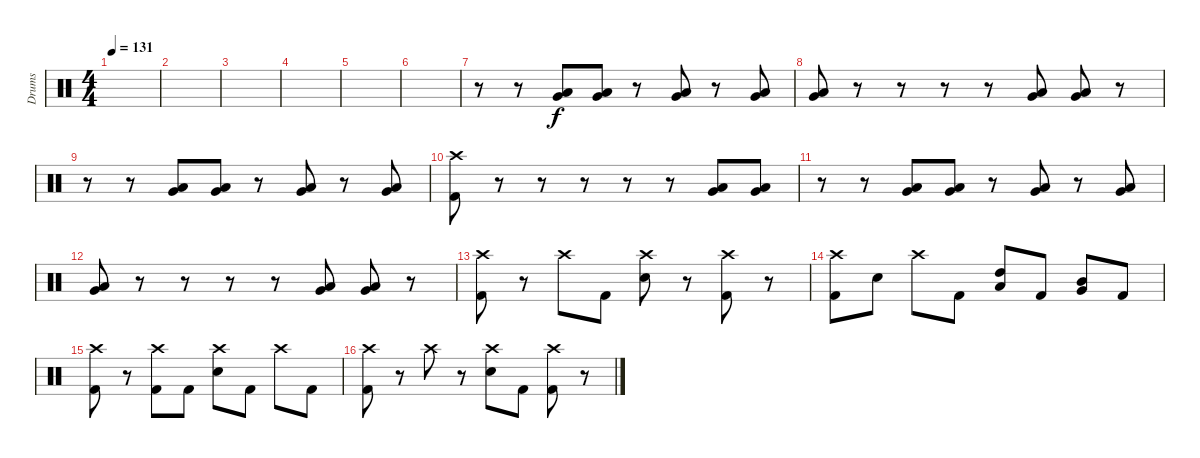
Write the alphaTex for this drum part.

\track ("Drums" "Drums") {instrument percussion}
\staff {score}
\articulation defaults
\ts (4 4)
\tempo 131
\clef neutral
\ks c
|
|
|
|
|
|
r.8 r.8 ("Very Low Tom (hit)" "Low Floor Tom (hit)").8 ("Very Low Tom (hit)" "Low Floor Tom (hit)").8 r.8 ("Very Low Tom (hit)" "Low Floor Tom (hit)").8 r.8 ("Very Low Tom (hit)" "Low Floor Tom (hit)").8 |
("Very Low Tom (hit)" "Low Floor Tom (hit)").8 r.8 r.8 r.8 r.8 ("Very Low Tom (hit)" "Low Floor Tom (hit)").8 ("Very Low Tom (hit)" "Low Floor Tom (hit)").8 r.8 |
r.8 r.8 ("Very Low Tom (hit)" "Low Floor Tom (hit)").8 ("Very Low Tom (hit)" "Low Floor Tom (hit)").8 r.8 ("Very Low Tom (hit)" "Low Floor Tom (hit)").8 r.8 ("Very Low Tom (hit)" "Low Floor Tom (hit)").8 |
("Crash high (hit)" "Kick (hit) 2").8 r.8 r.8 r.8 r.8 r.8 ("Very Low Tom (hit)" "Low Floor Tom (hit)").8 ("Very Low Tom (hit)" "Low Floor Tom (hit)").8 |
r.8 r.8 ("Very Low Tom (hit)" "Low Floor Tom (hit)").8 ("Very Low Tom (hit)" "Low Floor Tom (hit)").8 r.8 ("Very Low Tom (hit)" "Low Floor Tom (hit)").8 r.8 ("Very Low Tom (hit)" "Low Floor Tom (hit)").8 |
("Very Low Tom (hit)" "Low Floor Tom (hit)").8 r.8 r.8 r.8 r.8 ("Very Low Tom (hit)" "Low Floor Tom (hit)").8 ("Very Low Tom (hit)" "Low Floor Tom (hit)").8 r.8 |
("Crash high (hit)" "Kick (hit) 2").8 r.8 "Crash high (hit)".8 "Kick (hit) 2".8 ("Crash high (hit)" "Electric Snare (hit)").8 r.8 ("Crash high (hit)" "Kick (hit) 2").8 r.8 |
("Crash high (hit)" "Kick (hit) 2").8 "Electric Snare (hit)".8 "Crash high (hit)".8 "Kick (hit) 2".8 ("Low Tom (hit)" "High Tom (hit)").8 "Kick (hit) 2".8 ("Very Low Tom (hit)" "Mid Tom (hit)").8 "Kick (hit) 2".8 |
("Crash high (hit)" "Kick (hit) 2").8 r.8 ("Crash high (hit)" "Kick (hit) 2").8 "Kick (hit) 2".8 ("Crash high (hit)" "Electric Snare (hit)").8 "Kick (hit) 2".8 "Crash high (hit)".8 "Kick (hit) 2".8 |
("Crash high (hit)" "Kick (hit) 2").8 r.8 "Crash high (hit)".8 r.8 ("Crash high (hit)" "Electric Snare (hit)").8 "Kick (hit) 2".8 ("Crash high (hit)" "Kick (hit) 2").8 r.8
